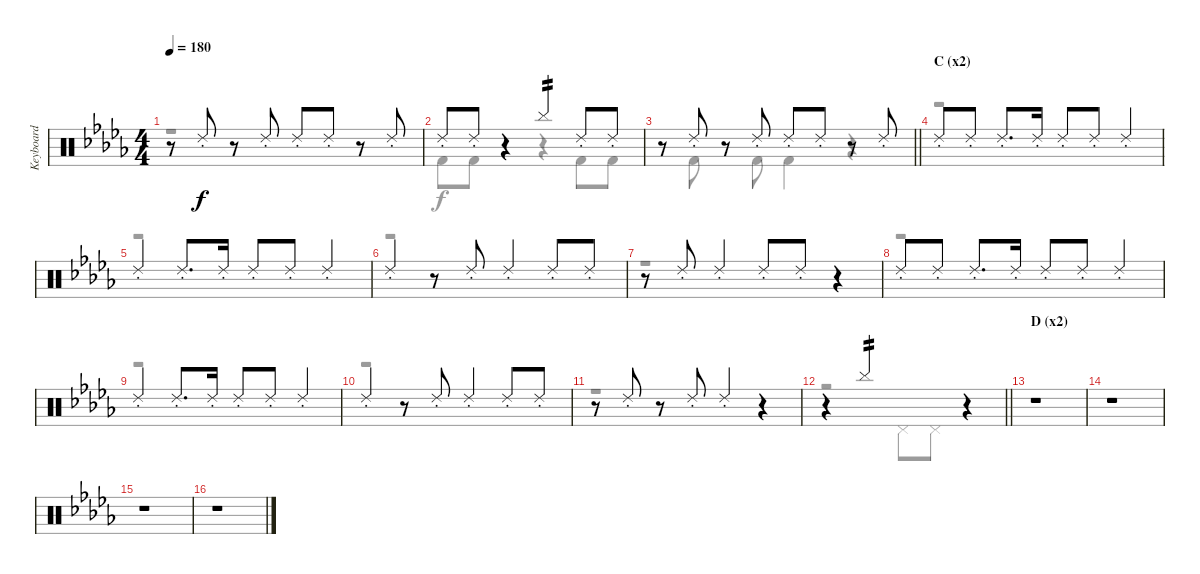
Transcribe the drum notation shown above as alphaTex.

\track ("Keyboard" "Keyboard") {instrument percussion}
\staff {score}
\articulation defaults
\voice
\ts (4 4)
\tempo 180
\clef neutral
\ks db
r.8{dy f} "Ride (choke) 2".8 r.8 "Ride (choke) 2".8 "Ride (choke) 2".8 "Ride (choke) 2".8 r.8 "Ride (choke) 2".8 |
"Ride (choke) 2".8 "Ride (choke) 2".8 r.4 "Cymbal (hit)".4{tp 2} "Ride (choke) 2".8 "Ride (choke) 2".8 |
\barLineRight lightlight
r.8 "Ride (choke) 2".8 r.8 "Ride (choke) 2".8 "Ride (choke) 2".8 "Ride (choke) 2".8 r.8 "Ride (choke) 2".8 |
\section ("" "C (x2)")
"Ride (choke) 2".8 "Ride (choke) 2".8 "Ride (choke) 2".8{d} "Ride (choke) 2".16 "Ride (choke) 2".8 "Ride (choke) 2".8 "Ride (choke) 2".4 |
"Ride (choke) 2".4 "Ride (choke) 2".8{d} "Ride (choke) 2".16 "Ride (choke) 2".8 "Ride (choke) 2".8 "Ride (choke) 2".4 |
"Ride (choke) 2".4 r.8 "Ride (choke) 2".8 "Ride (choke) 2".4 "Ride (choke) 2".8 "Ride (choke) 2".8 |
r.8 "Ride (choke) 2".8 "Ride (choke) 2".4 "Ride (choke) 2".8 "Ride (choke) 2".8 r.4 |
"Ride (choke) 2".8 "Ride (choke) 2".8 "Ride (choke) 2".8{d} "Ride (choke) 2".16 "Ride (choke) 2".8 "Ride (choke) 2".8 "Ride (choke) 2".4 |
"Ride (choke) 2".4 "Ride (choke) 2".8{d} "Ride (choke) 2".16 "Ride (choke) 2".8 "Ride (choke) 2".8 "Ride (choke) 2".4 |
"Ride (choke) 2".4 r.8 "Ride (choke) 2".8 "Ride (choke) 2".4 "Ride (choke) 2".8 "Ride (choke) 2".8 |
r.8 "Ride (choke) 2".8 r.8 "Ride (choke) 2".8 "Ride (choke) 2".4 r.4 |
\barLineRight lightlight
r.4 "Cymbal (hit)".2{tp 2} r.4 |
\section ("" "D (x2)")
r.1 |
r.1 |
r.1 |
r.1
\voice
\clef neutral
\ottava regular
\simile none
\ks db
r.1{dy f} |
"Kick (hit) 2".8 "Kick (hit) 2".8 r.4 r.4 "Kick (hit) 2".8 "Kick (hit) 2".8 |
\barLineRight lightlight
r.8 "Kick (hit) 2".8 r.8 "Kick (hit) 2".8 "Kick (hit) 2".4 r.4 |
r.1 |
r.1 |
r.1 |
r.1 |
r.1 |
r.1 |
r.1 |
r.1 |
\barLineRight lightlight
r.2 "Pedal Hi-Hat (hit)".8 "Pedal Hi-Hat (hit)".8 r.4 |
|
|
|
